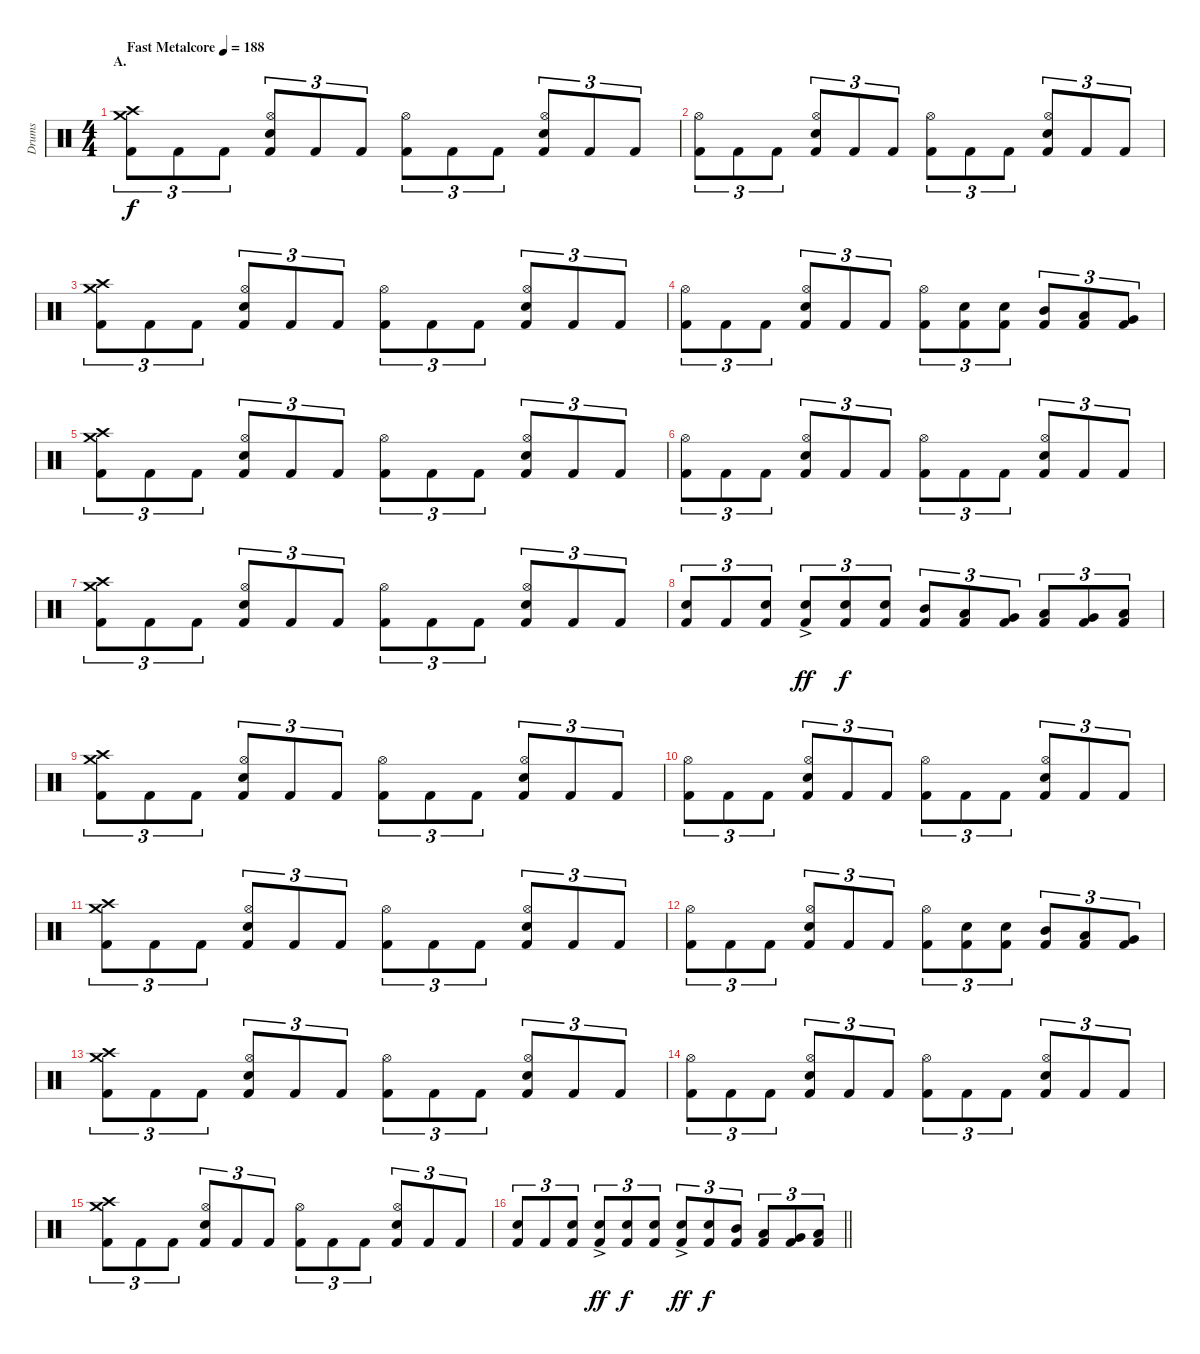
\track ("Drums" "Drums") {instrument percussion}
\staff {score}
\articulation defaults
\ts (4 4)
\section ("" "A.")
\tempo (188 "Fast Metalcore")
\clef neutral
\ks c
("Crash medium (hit)" "Crash high (hit)" "Kick (hit) 2").8{tu (3 2) dy f} "Kick (hit) 2".8{tu (3 2)} "Kick (hit) 2".8{tu (3 2)} ("Hi-Hat (open)" "Electric Snare (hit)" "Kick (hit) 2").8{tu (3 2)} "Kick (hit) 2".8{tu (3 2)} "Kick (hit) 2".8{tu (3 2)} ("Hi-Hat (open)" "Kick (hit) 2").8{tu (3 2)} "Kick (hit) 2".8{tu (3 2)} "Kick (hit) 2".8{tu (3 2)} ("Hi-Hat (open)" "Electric Snare (hit)" "Kick (hit) 2").8{tu (3 2)} "Kick (hit) 2".8{tu (3 2)} "Kick (hit) 2".8{tu (3 2)} |
("Hi-Hat (open)" "Kick (hit) 2").8{tu (3 2)} "Kick (hit) 2".8{tu (3 2)} "Kick (hit) 2".8{tu (3 2)} ("Hi-Hat (open)" "Electric Snare (hit)" "Kick (hit) 2").8{tu (3 2)} "Kick (hit) 2".8{tu (3 2)} "Kick (hit) 2".8{tu (3 2)} ("Hi-Hat (open)" "Kick (hit) 2").8{tu (3 2)} "Kick (hit) 2".8{tu (3 2)} "Kick (hit) 2".8{tu (3 2)} ("Hi-Hat (open)" "Electric Snare (hit)" "Kick (hit) 2").8{tu (3 2)} "Kick (hit) 2".8{tu (3 2)} "Kick (hit) 2".8{tu (3 2)} |
("Crash medium (hit)" "Crash high (hit)" "Kick (hit) 2").8{tu (3 2)} "Kick (hit) 2".8{tu (3 2)} "Kick (hit) 2".8{tu (3 2)} ("Hi-Hat (open)" "Electric Snare (hit)" "Kick (hit) 2").8{tu (3 2)} "Kick (hit) 2".8{tu (3 2)} "Kick (hit) 2".8{tu (3 2)} ("Hi-Hat (open)" "Kick (hit) 2").8{tu (3 2)} "Kick (hit) 2".8{tu (3 2)} "Kick (hit) 2".8{tu (3 2)} ("Hi-Hat (open)" "Electric Snare (hit)" "Kick (hit) 2").8{tu (3 2)} "Kick (hit) 2".8{tu (3 2)} "Kick (hit) 2".8{tu (3 2)} |
("Hi-Hat (open)" "Kick (hit) 2").8{tu (3 2)} "Kick (hit) 2".8{tu (3 2)} "Kick (hit) 2".8{tu (3 2)} ("Hi-Hat (open)" "Electric Snare (hit)" "Kick (hit) 2").8{tu (3 2)} "Kick (hit) 2".8{tu (3 2)} "Kick (hit) 2".8{tu (3 2)} ("Hi-Hat (open)" "Kick (hit) 2").8{tu (3 2)} ("Electric Snare (hit)" "Kick (hit) 2").8{tu (3 2)} ("Electric Snare (hit)" "Kick (hit) 2").8{tu (3 2)} ("Mid Tom (hit)" "Kick (hit) 2").8{tu (3 2)} ("Low Tom (hit)" "Kick (hit) 2").8{tu (3 2)} ("Very Low Tom (hit)" "Kick (hit) 2").8{tu (3 2)} |
("Crash medium (hit)" "Crash high (hit)" "Kick (hit) 2").8{tu (3 2)} "Kick (hit) 2".8{tu (3 2)} "Kick (hit) 2".8{tu (3 2)} ("Hi-Hat (open)" "Electric Snare (hit)" "Kick (hit) 2").8{tu (3 2)} "Kick (hit) 2".8{tu (3 2)} "Kick (hit) 2".8{tu (3 2)} ("Hi-Hat (open)" "Kick (hit) 2").8{tu (3 2)} "Kick (hit) 2".8{tu (3 2)} "Kick (hit) 2".8{tu (3 2)} ("Hi-Hat (open)" "Electric Snare (hit)" "Kick (hit) 2").8{tu (3 2)} "Kick (hit) 2".8{tu (3 2)} "Kick (hit) 2".8{tu (3 2)} |
("Hi-Hat (open)" "Kick (hit) 2").8{tu (3 2)} "Kick (hit) 2".8{tu (3 2)} "Kick (hit) 2".8{tu (3 2)} ("Hi-Hat (open)" "Electric Snare (hit)" "Kick (hit) 2").8{tu (3 2)} "Kick (hit) 2".8{tu (3 2)} "Kick (hit) 2".8{tu (3 2)} ("Hi-Hat (open)" "Kick (hit) 2").8{tu (3 2)} "Kick (hit) 2".8{tu (3 2)} "Kick (hit) 2".8{tu (3 2)} ("Hi-Hat (open)" "Electric Snare (hit)" "Kick (hit) 2").8{tu (3 2)} "Kick (hit) 2".8{tu (3 2)} "Kick (hit) 2".8{tu (3 2)} |
("Crash medium (hit)" "Crash high (hit)" "Kick (hit) 2").8{tu (3 2)} "Kick (hit) 2".8{tu (3 2)} "Kick (hit) 2".8{tu (3 2)} ("Hi-Hat (open)" "Electric Snare (hit)" "Kick (hit) 2").8{tu (3 2)} "Kick (hit) 2".8{tu (3 2)} "Kick (hit) 2".8{tu (3 2)} ("Hi-Hat (open)" "Kick (hit) 2").8{tu (3 2)} "Kick (hit) 2".8{tu (3 2)} "Kick (hit) 2".8{tu (3 2)} ("Hi-Hat (open)" "Electric Snare (hit)" "Kick (hit) 2").8{tu (3 2)} "Kick (hit) 2".8{tu (3 2)} "Kick (hit) 2".8{tu (3 2)} |
("Electric Snare (hit)" "Kick (hit) 2").8{tu (3 2)} "Kick (hit) 2".8{tu (3 2)} ("Electric Snare (hit)" "Kick (hit) 2").8{tu (3 2)} ("Electric Snare (hit)"{ac} "Kick (hit) 2").8{tu (3 2) dy ff} ("Electric Snare (hit)" "Kick (hit) 2").8{tu (3 2) dy f} ("Electric Snare (hit)" "Kick (hit) 2").8{tu (3 2)} ("Mid Tom (hit)" "Kick (hit) 2").8{tu (3 2)} ("Low Tom (hit)" "Kick (hit) 2").8{tu (3 2)} ("Very Low Tom (hit)" "Kick (hit) 2").8{tu (3 2)} ("Low Tom (hit)" "Kick (hit) 2").8{tu (3 2)} ("Very Low Tom (hit)" "Kick (hit) 2").8{tu (3 2)} ("Low Floor Tom (hit)" "Kick (hit) 2").8{tu (3 2)} |
("Crash medium (hit)" "Crash high (hit)" "Kick (hit) 2").8{tu (3 2)} "Kick (hit) 2".8{tu (3 2)} "Kick (hit) 2".8{tu (3 2)} ("Hi-Hat (open)" "Electric Snare (hit)" "Kick (hit) 2").8{tu (3 2)} "Kick (hit) 2".8{tu (3 2)} "Kick (hit) 2".8{tu (3 2)} ("Hi-Hat (open)" "Kick (hit) 2").8{tu (3 2)} "Kick (hit) 2".8{tu (3 2)} "Kick (hit) 2".8{tu (3 2)} ("Hi-Hat (open)" "Electric Snare (hit)" "Kick (hit) 2").8{tu (3 2)} "Kick (hit) 2".8{tu (3 2)} "Kick (hit) 2".8{tu (3 2)} |
("Hi-Hat (open)" "Kick (hit) 2").8{tu (3 2)} "Kick (hit) 2".8{tu (3 2)} "Kick (hit) 2".8{tu (3 2)} ("Hi-Hat (open)" "Electric Snare (hit)" "Kick (hit) 2").8{tu (3 2)} "Kick (hit) 2".8{tu (3 2)} "Kick (hit) 2".8{tu (3 2)} ("Hi-Hat (open)" "Kick (hit) 2").8{tu (3 2)} "Kick (hit) 2".8{tu (3 2)} "Kick (hit) 2".8{tu (3 2)} ("Hi-Hat (open)" "Electric Snare (hit)" "Kick (hit) 2").8{tu (3 2)} "Kick (hit) 2".8{tu (3 2)} "Kick (hit) 2".8{tu (3 2)} |
("Crash medium (hit)" "Crash high (hit)" "Kick (hit) 2").8{tu (3 2)} "Kick (hit) 2".8{tu (3 2)} "Kick (hit) 2".8{tu (3 2)} ("Hi-Hat (open)" "Electric Snare (hit)" "Kick (hit) 2").8{tu (3 2)} "Kick (hit) 2".8{tu (3 2)} "Kick (hit) 2".8{tu (3 2)} ("Hi-Hat (open)" "Kick (hit) 2").8{tu (3 2)} "Kick (hit) 2".8{tu (3 2)} "Kick (hit) 2".8{tu (3 2)} ("Hi-Hat (open)" "Electric Snare (hit)" "Kick (hit) 2").8{tu (3 2)} "Kick (hit) 2".8{tu (3 2)} "Kick (hit) 2".8{tu (3 2)} |
("Hi-Hat (open)" "Kick (hit) 2").8{tu (3 2)} "Kick (hit) 2".8{tu (3 2)} "Kick (hit) 2".8{tu (3 2)} ("Hi-Hat (open)" "Electric Snare (hit)" "Kick (hit) 2").8{tu (3 2)} "Kick (hit) 2".8{tu (3 2)} "Kick (hit) 2".8{tu (3 2)} ("Hi-Hat (open)" "Kick (hit) 2").8{tu (3 2)} ("Electric Snare (hit)" "Kick (hit) 2").8{tu (3 2)} ("Electric Snare (hit)" "Kick (hit) 2").8{tu (3 2)} ("Mid Tom (hit)" "Kick (hit) 2").8{tu (3 2)} ("Low Tom (hit)" "Kick (hit) 2").8{tu (3 2)} ("Very Low Tom (hit)" "Kick (hit) 2").8{tu (3 2)} |
("Crash medium (hit)" "Crash high (hit)" "Kick (hit) 2").8{tu (3 2)} "Kick (hit) 2".8{tu (3 2)} "Kick (hit) 2".8{tu (3 2)} ("Hi-Hat (open)" "Electric Snare (hit)" "Kick (hit) 2").8{tu (3 2)} "Kick (hit) 2".8{tu (3 2)} "Kick (hit) 2".8{tu (3 2)} ("Hi-Hat (open)" "Kick (hit) 2").8{tu (3 2)} "Kick (hit) 2".8{tu (3 2)} "Kick (hit) 2".8{tu (3 2)} ("Hi-Hat (open)" "Electric Snare (hit)" "Kick (hit) 2").8{tu (3 2)} "Kick (hit) 2".8{tu (3 2)} "Kick (hit) 2".8{tu (3 2)} |
("Hi-Hat (open)" "Kick (hit) 2").8{tu (3 2)} "Kick (hit) 2".8{tu (3 2)} "Kick (hit) 2".8{tu (3 2)} ("Hi-Hat (open)" "Electric Snare (hit)" "Kick (hit) 2").8{tu (3 2)} "Kick (hit) 2".8{tu (3 2)} "Kick (hit) 2".8{tu (3 2)} ("Hi-Hat (open)" "Kick (hit) 2").8{tu (3 2)} "Kick (hit) 2".8{tu (3 2)} "Kick (hit) 2".8{tu (3 2)} ("Hi-Hat (open)" "Electric Snare (hit)" "Kick (hit) 2").8{tu (3 2)} "Kick (hit) 2".8{tu (3 2)} "Kick (hit) 2".8{tu (3 2)} |
("Crash medium (hit)" "Crash high (hit)" "Kick (hit) 2").8{tu (3 2)} "Kick (hit) 2".8{tu (3 2)} "Kick (hit) 2".8{tu (3 2)} ("Hi-Hat (open)" "Electric Snare (hit)" "Kick (hit) 2").8{tu (3 2)} "Kick (hit) 2".8{tu (3 2)} "Kick (hit) 2".8{tu (3 2)} ("Hi-Hat (open)" "Kick (hit) 2").8{tu (3 2)} "Kick (hit) 2".8{tu (3 2)} "Kick (hit) 2".8{tu (3 2)} ("Hi-Hat (open)" "Electric Snare (hit)" "Kick (hit) 2").8{tu (3 2)} "Kick (hit) 2".8{tu (3 2)} "Kick (hit) 2".8{tu (3 2)} |
\barLineRight lightlight
("Electric Snare (hit)" "Kick (hit) 2").8{tu (3 2)} "Kick (hit) 2".8{tu (3 2)} ("Electric Snare (hit)" "Kick (hit) 2").8{tu (3 2)} ("Electric Snare (hit)"{ac} "Kick (hit) 2").8{tu (3 2) dy ff} ("Electric Snare (hit)" "Kick (hit) 2").8{tu (3 2) dy f} ("Electric Snare (hit)" "Kick (hit) 2").8{tu (3 2)} ("Electric Snare (hit)"{ac} "Kick (hit) 2").8{tu (3 2) dy ff} ("Electric Snare (hit)" "Kick (hit) 2").8{tu (3 2) dy f} ("Mid Tom (hit)" "Kick (hit) 2").8{tu (3 2)} ("Low Tom (hit)" "Kick (hit) 2").8{tu (3 2)} ("Very Low Tom (hit)" "Kick (hit) 2").8{tu (3 2)} ("Low Floor Tom (hit)" "Kick (hit) 2").8{tu (3 2)}
